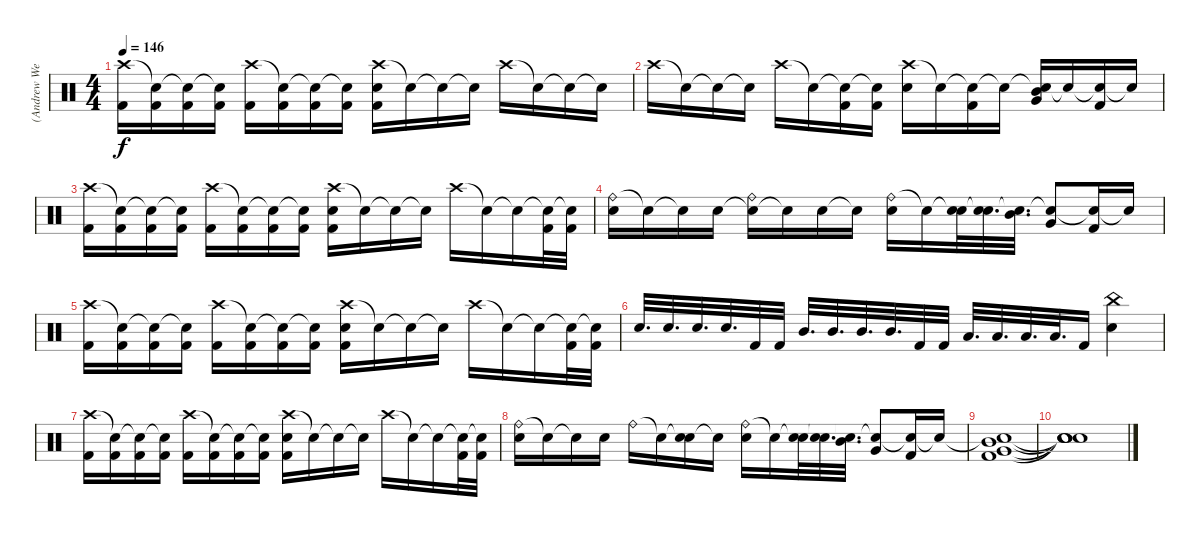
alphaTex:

\track ("(Andrew Wetzel) Drums" "(Andrew We") {instrument percussion}
\staff {score}
\articulation defaults
\ts (4 4)
\tempo 146
\clef neutral
\ks c
("Crash high (hit)" "Kick (hit) 2").16{dy f} ("Snare (hit)"{t} "Kick (hit) 2").16 ("Snare (hit)"{t} "Kick (hit) 2").16 ("Snare (hit)"{t} "Kick (hit) 2").16 ("Crash high (hit)" "Kick (hit) 2").16 ("Snare (hit)"{t} "Kick (hit) 2").16 ("Snare (hit)"{t} "Kick (hit) 2").16 ("Snare (hit)"{t} "Kick (hit) 2").16 ("Crash high (hit)" "Electric Snare (hit)" "Kick (hit) 2").16 "Snare (hit)"{t}.16 "Snare (hit)"{t}.16 "Snare (hit)"{t}.16 "Crash high (hit)".16 "Snare (hit)"{t}.16 "Snare (hit)"{t}.16 "Snare (hit)"{t}.16 |
"Crash high (hit)".16 "Snare (hit)"{t}.16 "Snare (hit)"{t}.16 "Snare (hit)"{t}.16 "Crash high (hit)".16 "Snare (hit)"{t}.16 ("Snare (hit)"{t} "Kick (hit) 2").16 ("Snare (hit)"{t} "Kick (hit) 2").16 ("Crash high (hit)" "Electric Snare (hit)").16 "Snare (hit)"{t}.16 ("Snare (hit)"{t} "Kick (hit) 2").16 "Snare (hit)"{t}.16 ("Snare (hit)"{t} "Mid Tom (hit)" "Very Low Tom (hit)").16 "Snare (hit)"{t}.16 ("Snare (hit)"{t} "Kick (hit) 2").16 "Snare (hit)"{t}.16 |
("Crash high (hit)" "Kick (hit) 2").16 ("Snare (hit)"{t} "Kick (hit) 2").16 ("Snare (hit)"{t} "Kick (hit) 2").16 ("Snare (hit)"{t} "Kick (hit) 2").16 ("Crash high (hit)" "Kick (hit) 2").16 ("Snare (hit)"{t} "Kick (hit) 2").16 ("Snare (hit)"{t} "Kick (hit) 2").16 ("Snare (hit)"{t} "Kick (hit) 2").16 ("Crash high (hit)" "Electric Snare (hit)" "Kick (hit) 2").16 "Snare (hit)"{t}.16 "Snare (hit)"{t}.16 "Snare (hit)"{t}.16 "Crash high (hit)".16 "Snare (hit)"{t}.16 "Snare (hit)"{t}.16 ("Snare (hit)"{t} "Kick (hit) 2").32 ("Snare (hit)"{t} "Kick (hit) 2").32 |
("Ride (bell)" "Electric Snare (hit)").16 "Snare (hit)"{t}.16 "Snare (hit)"{t}.16 "Electric Snare (hit)".16 ("Snare (hit)"{t} "Ride (bell)").16 "Snare (hit)"{t}.16 "Electric Snare (hit)".16 "Snare (hit)"{t}.16 ("Ride (bell)" "Electric Snare (hit)").16 "Snare (hit)"{t}.16 ("Snare (hit)"{t} "Electric Snare (hit)").32 ("Snare (hit)"{t} "Electric Snare (hit)").32{d} ("Snare (hit)"{t} "Mid Tom (hit)").32{d} ("Snare (hit)"{t} "Very Low Tom (hit)").8 ("Snare (hit)"{t} "Kick (hit) 2").16 "Snare (hit)"{t}.16 |
("Crash high (hit)" "Kick (hit) 2").16 ("Snare (hit)"{t} "Kick (hit) 2").16 ("Snare (hit)"{t} "Kick (hit) 2").16 ("Snare (hit)"{t} "Kick (hit) 2").16 ("Crash high (hit)" "Kick (hit) 2").16 ("Snare (hit)"{t} "Kick (hit) 2").16 ("Snare (hit)"{t} "Kick (hit) 2").16 ("Snare (hit)"{t} "Kick (hit) 2").16 ("Crash high (hit)" "Electric Snare (hit)" "Kick (hit) 2").16 "Snare (hit)"{t}.16 "Snare (hit)"{t}.16 "Snare (hit)"{t}.16 "Crash high (hit)".16 "Snare (hit)"{t}.16 "Snare (hit)"{t}.16 ("Snare (hit)"{t} "Kick (hit) 2").32 ("Snare (hit)"{t} "Kick (hit) 2").32 |
"Electric Snare (hit)".32{d} "Electric Snare (hit)".32{d} "Electric Snare (hit)".32{d} "Electric Snare (hit)".32{d} "Kick (hit) 2".32 "Kick (hit) 2".32 "Mid Tom (hit)".32{d} "Mid Tom (hit)".32{d} "Mid Tom (hit)".32{d} "Mid Tom (hit)".32{d} "Kick (hit) 2".32 "Kick (hit) 2".32 "Low Tom (hit)".32{d} "Low Tom (hit)".32{d} "Low Tom (hit)".32{d} "Low Tom (hit)".32{d} "Kick (hit) 2".16 ("China (hit)" "Electric Snare (hit)").4 |
("Crash high (hit)" "Kick (hit) 2").16 ("Snare (hit)"{t} "Kick (hit) 2").16 ("Snare (hit)"{t} "Kick (hit) 2").16 ("Snare (hit)"{t} "Kick (hit) 2").16 ("Crash high (hit)" "Kick (hit) 2").16 ("Snare (hit)"{t} "Kick (hit) 2").16 ("Snare (hit)"{t} "Kick (hit) 2").16 ("Snare (hit)"{t} "Kick (hit) 2").16 ("Crash high (hit)" "Electric Snare (hit)" "Kick (hit) 2").16 "Snare (hit)"{t}.16 "Snare (hit)"{t}.16 "Snare (hit)"{t}.16 "Crash high (hit)".16 "Snare (hit)"{t}.16 "Snare (hit)"{t}.16 ("Snare (hit)"{t} "Kick (hit) 2").32 ("Snare (hit)"{t} "Kick (hit) 2").32 |
("Ride (bell)" "Electric Snare (hit)").16 "Snare (hit)"{t}.16 "Snare (hit)"{t}.16 "Electric Snare (hit)".16 "Ride (bell)".16 "Snare (hit)"{t}.16 ("Snare (hit)"{t} "Electric Snare (hit)").16 "Snare (hit)"{t}.16 ("Ride (bell)" "Electric Snare (hit)").16 "Snare (hit)"{t}.16 ("Snare (hit)"{t} "Electric Snare (hit)").32 ("Snare (hit)"{t} "Electric Snare (hit)").32{d} ("Snare (hit)"{t} "Mid Tom (hit)").32{d} ("Snare (hit)"{t} "Very Low Tom (hit)").8 ("Snare (hit)"{t} "Kick (hit) 2").16 "Snare (hit)"{t}.16 |
("Snare (hit)"{t} "Mid Tom (hit)" "Very Low Tom (hit)" "Kick (hit) 2").1 |
("Snare (hit)"{t} "Snare (hit)"{t} "Snare (hit)"{t} "Snare (hit)"{t}).1{volume 0}
